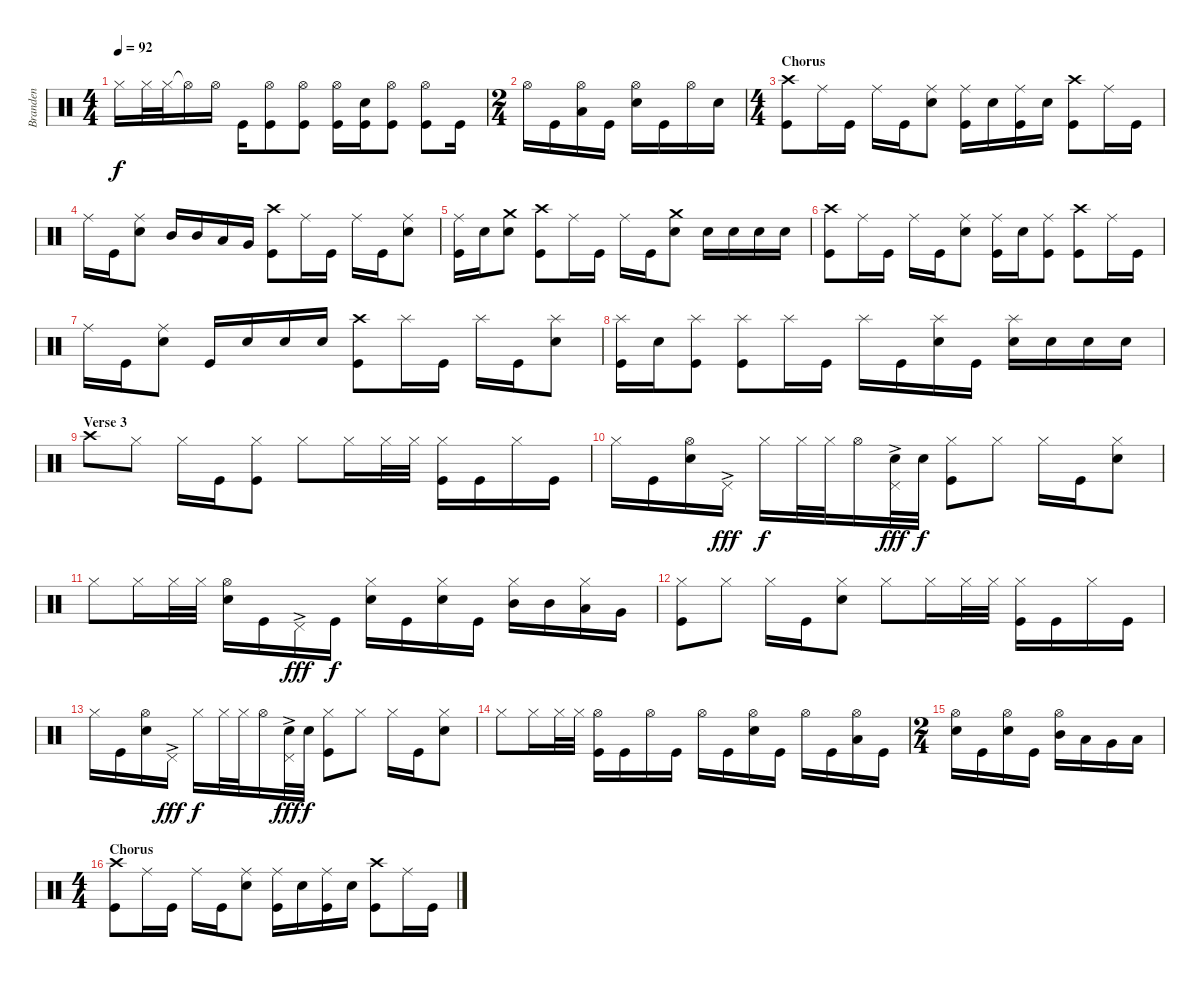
\track ("Branden" "Branden") {instrument percussion}
\staff {score}
\articulation defaults
\ts (4 4)
\tempo 92
\clef neutral
\ks c "Hi-Hat (closed)".16{dy f} "Hi-Hat (closed)".32 "Hi-Hat (closed)".32 "Hi-Hat (open)"{t}.16 "Hi-Hat (open)".16 "Kick (hit)".16
("Hi-Hat (open)" "Kick (hit)").8 ("Hi-Hat (open)" "Kick (hit)").8 ("Hi-Hat (open)" "Kick (hit)").16 ("Snare (hit) 2" "Kick (hit)").16 ("Hi-Hat (open)" "Kick (hit)").8 ("Hi-Hat (open)" "Kick (hit)").8 "Kick (hit)".16 |
\ts (2 4)
"Hi-Hat (open)".16 "Kick (hit)".16 ("Hi-Hat (open)" "Low Tom (hit)").16 "Kick (hit)".16 ("Hi-Hat (open)" "Snare (hit) 2").16 "Kick (hit)".16 "Hi-Hat (open)".16 "Snare (hit) 2".16 |
\ts (4 4)
\section ("" "Chorus")
("Crash high (hit)" "Kick (hit)").8 "Ride (middle)".16 "Kick (hit)".16 "Ride (middle)".16 "Kick (hit)".16 ("Ride (middle)" "Snare (hit) 2").8 ("Ride (middle)" "Kick (hit)").16 "Snare (hit) 2".16 ("Ride (middle)" "Kick (hit)").16 "Snare (hit) 2".16 ("Crash high (hit)" "Kick (hit)").8 "Ride (middle)".16 "Kick (hit)".16 |
"Ride (middle)".16 "Kick (hit)".16 ("Ride (middle)" "Snare (hit) 2").8 "Mid Tom (hit)".16 "Mid Tom (hit)".16 "Low Tom (hit)".16 "Very Low Tom (hit)".16 ("Crash high (hit)" "Kick (hit)").8 "Ride (middle)".16 "Kick (hit)".16 "Ride (middle)".16 "Kick (hit)".16 ("Ride (middle)" "Snare (hit) 2").8 |
("Ride (middle)" "Kick (hit)").16 "Snare (hit) 2".16 ("Crash medium (hit)" "Snare (hit) 2").8 ("Crash high (hit)" "Kick (hit)").8 "Ride (middle)".16 "Kick (hit)".16 "Ride (middle)".16 "Kick (hit)".16 ("Crash medium (hit)" "Snare (hit) 2").8 "Snare (hit) 2".16 "Snare (hit) 2".16 "Snare (hit) 2".16 "Snare (hit) 2".16 |
("Crash high (hit)" "Kick (hit)").8 "Ride (middle)".16 "Kick (hit)".16 "Ride (middle)".16 "Kick (hit)".16 ("Ride (middle)" "Snare (hit) 2").8 ("Ride (middle)" "Kick (hit)").16 "Snare (hit) 2".16 ("Ride (middle)" "Kick (hit)").8 ("Crash high (hit)" "Kick (hit)").8 "Ride (middle)".16 "Kick (hit)".16 |
"Ride (middle)".16 "Kick (hit)".16 ("Ride (middle)" "Snare (hit) 2").8 "Kick (hit)".16 "Snare (hit) 2".16 "Snare (hit) 2".16 "Snare (hit) 2".16 ("Crash high (hit)" "Kick (hit)").8 "Splash (hit)".16 "Kick (hit)".16 "Splash (hit)".16 "Kick (hit)".16 ("Splash (hit)" "Snare (hit) 2").8 |
("Splash (hit)" "Kick (hit)").16 "Snare (hit) 2".16 ("Splash (hit)" "Kick (hit)").8 ("Splash (hit)" "Kick (hit)").8 "Splash (hit)".16 "Kick (hit)".16 "Splash (hit)".16 "Kick (hit)".16 ("Splash (hit)" "Snare (hit) 2").16 "Kick (hit)".16 ("Splash (hit)" "Snare (hit) 2").16 "Snare (hit) 2".16 "Snare (hit) 2".16 "Snare (hit) 2".16 |
\section ("" "Verse 3")
"Crash high (hit)".8 "Hi-Hat (closed)".8 "Hi-Hat (closed)".16 "Kick (hit)".16 ("Hi-Hat (closed)" "Kick (hit)").8 "Hi-Hat (closed)".8 "Hi-Hat (closed)".16 "Hi-Hat (closed)".32 "Hi-Hat (closed)".32 ("Hi-Hat (closed)" "Kick (hit)").16 "Kick (hit)".16 "Hi-Hat (closed)".16 "Kick (hit)".16 |
"Hi-Hat (closed)".16 "Kick (hit)".16 ("Hi-Hat (open)" "Snare (hit) 2").16 "Pedal Hi-Hat (hit)"{ac}.16{dy fff} "Hi-Hat (closed)".16{dy f} "Hi-Hat (closed)".32 "Hi-Hat (closed)".32 "Hi-Hat (open)".16 ("Snare (hit) 2" "Pedal Hi-Hat (hit)"{ac}).32{dy fff} "Snare (hit) 2".32{dy f} ("Hi-Hat (closed)" "Kick (hit)").8 "Hi-Hat (closed)".8 "Hi-Hat (closed)".16 "Kick (hit)".16 ("Hi-Hat (closed)" "Snare (hit) 2").8 |
"Hi-Hat (closed)".8 "Hi-Hat (closed)".16 "Hi-Hat (closed)".32 "Hi-Hat (closed)".32 ("Hi-Hat (open)" "Snare (hit) 2").16 "Kick (hit)".16 "Pedal Hi-Hat (hit)"{ac}.16{dy fff} "Kick (hit)".16{dy f} ("Hi-Hat (closed)" "Snare (hit) 2").16 "Kick (hit)".16 ("Hi-Hat (closed)" "Snare (hit) 2").16 "Kick (hit)".16 ("Hi-Hat (closed)" "Mid Tom (hit)").16 "Mid Tom (hit)".16 ("Hi-Hat (closed)" "Low Tom (hit)").16 "Very Low Tom (hit)".16 |
("Hi-Hat (closed)" "Kick (hit)").8 "Hi-Hat (closed)".8 "Hi-Hat (closed)".16 "Kick (hit)".16 ("Hi-Hat (closed)" "Snare (hit) 2").8 "Hi-Hat (closed)".8 "Hi-Hat (closed)".16 "Hi-Hat (closed)".32 "Hi-Hat (closed)".32 ("Hi-Hat (closed)" "Kick (hit)").16 "Kick (hit)".16 "Hi-Hat (closed)".16 "Kick (hit)".16 |
"Hi-Hat (closed)".16 "Kick (hit)".16 ("Hi-Hat (open)" "Snare (hit) 2").16 "Pedal Hi-Hat (hit)"{ac}.16{dy fff} "Hi-Hat (closed)".16{dy f} "Hi-Hat (closed)".32 "Hi-Hat (closed)".32 "Hi-Hat (open)".16 ("Snare (hit) 2" "Pedal Hi-Hat (hit)"{ac}).32{dy fff} "Snare (hit) 2".32{dy f} ("Hi-Hat (closed)" "Kick (hit)").8 "Hi-Hat (closed)".8 "Hi-Hat (closed)".16 "Kick (hit)".16 ("Hi-Hat (closed)" "Snare (hit) 2").8 |
"Hi-Hat (closed)".8 "Hi-Hat (closed)".16 "Hi-Hat (closed)".32 "Hi-Hat (closed)".32 ("Hi-Hat (open)" "Kick (hit)").16 "Kick (hit)".16 "Hi-Hat (open)".16 "Kick (hit)".16 "Hi-Hat (open)".16 "Kick (hit)".16 ("Hi-Hat (open)" "Snare (hit) 2").16 "Kick (hit)".16 "Hi-Hat (open)".16 "Kick (hit)".16 ("Hi-Hat (open)" "Low Tom (hit)").16 "Kick (hit)".16 |
\ts (2 4)
("Hi-Hat (open)" "Snare (hit) 2").16 "Kick (hit)".16 ("Hi-Hat (open)" "Snare (hit) 2").16 "Kick (hit)".16 ("Hi-Hat (open)" "Mid Tom (hit)").16 "Low Tom (hit)".16 "Very Low Tom (hit)".16 "Low Floor Tom (hit)".16 |
\ts (4 4)
\section ("" "Chorus")
("Crash high (hit)" "Kick (hit)").8 "Ride (middle)".16 "Kick (hit)".16 "Ride (middle)".16 "Kick (hit)".16 ("Ride (middle)" "Snare (hit) 2").8 ("Ride (middle)" "Kick (hit)").16 "Snare (hit) 2".16 ("Ride (middle)" "Kick (hit)").16 "Snare (hit) 2".16 ("Crash high (hit)" "Kick (hit)").8 "Ride (middle)".16 "Kick (hit)".16
